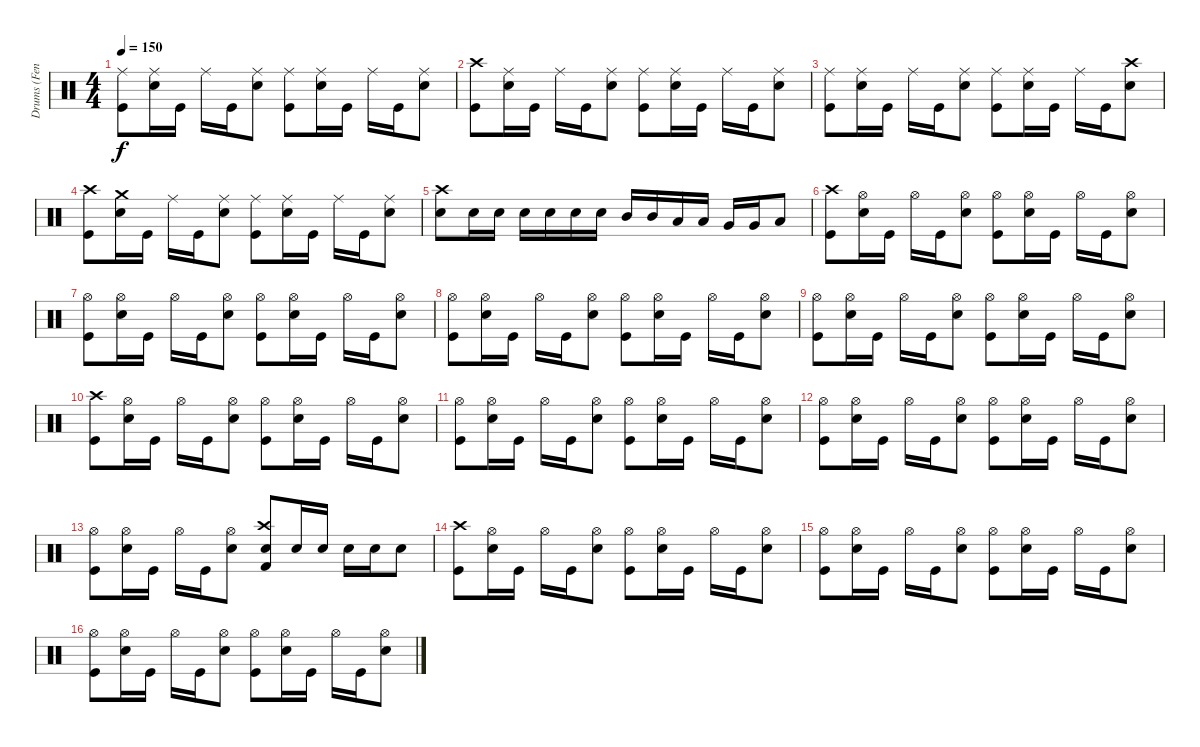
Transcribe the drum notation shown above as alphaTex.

\track ("Drums (Fenriz)" "Drums (Fen") {instrument percussion}
\staff {score}
\articulation defaults
\ts (4 4)
\tempo 150
\clef neutral
\ks c
("Ride (middle)" "Kick (hit)").8{dy f} ("Ride (middle)" "Electric Snare (hit)").16 "Kick (hit)".16 "Ride (middle)".16 "Kick (hit)".16 ("Ride (middle)" "Electric Snare (hit)").8 ("Ride (middle)" "Kick (hit)").8 ("Ride (middle)" "Electric Snare (hit)").16 "Kick (hit)".16 "Ride (middle)".16 "Kick (hit)".16 ("Ride (middle)" "Electric Snare (hit)").8 |
("Crash high (hit)" "Kick (hit)").8 ("Ride (middle)" "Electric Snare (hit)").16 "Kick (hit)".16 "Ride (middle)".16 "Kick (hit)".16 ("Ride (middle)" "Electric Snare (hit)").8 ("Ride (middle)" "Kick (hit)").8 ("Ride (middle)" "Electric Snare (hit)").16 "Kick (hit)".16 "Ride (middle)".16 "Kick (hit)".16 ("Ride (middle)" "Electric Snare (hit)").8 |
("Ride (middle)" "Kick (hit)").8 ("Ride (middle)" "Electric Snare (hit)").16 "Kick (hit)".16 "Ride (middle)".16 "Kick (hit)".16 ("Ride (middle)" "Electric Snare (hit)").8 ("Ride (middle)" "Kick (hit)").8 ("Ride (middle)" "Electric Snare (hit)").16 "Kick (hit)".16 "Ride (middle)".16 "Kick (hit)".16 ("Crash high (hit)" "Electric Snare (hit)").8 |
("Crash high (hit)" "Kick (hit)").8 ("Crash medium (hit)" "Electric Snare (hit)").16 "Kick (hit)".16 "Ride (middle)".16 "Kick (hit)".16 ("Ride (middle)" "Electric Snare (hit)").8 ("Ride (middle)" "Kick (hit)").8 ("Ride (middle)" "Electric Snare (hit)").16 "Kick (hit)".16 "Ride (middle)".16 "Kick (hit)".16 ("Ride (middle)" "Electric Snare (hit)").8 |
("Crash high (hit)" "Electric Snare (hit)").8 "Electric Snare (hit)".16 "Electric Snare (hit)".16 "Electric Snare (hit)".16 "Electric Snare (hit)".16 "Electric Snare (hit)".16 "Electric Snare (hit)".16 "Mid Tom (hit)".16 "Mid Tom (hit)".16 "Low Tom (hit)".16 "Low Tom (hit)".16 "Very Low Tom (hit)".16 "Very Low Tom (hit)".16 "Low Floor Tom (hit)".8 |
("Crash high (hit)" "Kick (hit)").8 ("Hi-Hat (open)" "Electric Snare (hit)").16 "Kick (hit)".16 "Hi-Hat (open)".16 "Kick (hit)".16 ("Hi-Hat (open)" "Electric Snare (hit)").8 ("Hi-Hat (open)" "Kick (hit)").8 ("Hi-Hat (open)" "Electric Snare (hit)").16 "Kick (hit)".16 "Hi-Hat (open)".16 "Kick (hit)".16 ("Hi-Hat (open)" "Electric Snare (hit)").8 |
("Hi-Hat (open)" "Kick (hit)").8 ("Hi-Hat (open)" "Electric Snare (hit)").16 "Kick (hit)".16 "Hi-Hat (open)".16 "Kick (hit)".16 ("Hi-Hat (open)" "Electric Snare (hit)").8 ("Hi-Hat (open)" "Kick (hit)").8 ("Hi-Hat (open)" "Electric Snare (hit)").16 "Kick (hit)".16 "Hi-Hat (open)".16 "Kick (hit)".16 ("Hi-Hat (open)" "Electric Snare (hit)").8 |
("Hi-Hat (open)" "Kick (hit)").8 ("Hi-Hat (open)" "Electric Snare (hit)").16 "Kick (hit)".16 "Hi-Hat (open)".16 "Kick (hit)".16 ("Hi-Hat (open)" "Electric Snare (hit)").8 ("Hi-Hat (open)" "Kick (hit)").8 ("Hi-Hat (open)" "Electric Snare (hit)").16 "Kick (hit)".16 "Hi-Hat (open)".16 "Kick (hit)".16 ("Hi-Hat (open)" "Electric Snare (hit)").8 |
("Hi-Hat (open)" "Kick (hit)").8 ("Hi-Hat (open)" "Electric Snare (hit)").16 "Kick (hit)".16 "Hi-Hat (open)".16 "Kick (hit)".16 ("Hi-Hat (open)" "Electric Snare (hit)").8 ("Hi-Hat (open)" "Kick (hit)").8 ("Hi-Hat (open)" "Electric Snare (hit)").16 "Kick (hit)".16 "Hi-Hat (open)".16 "Kick (hit)".16 ("Hi-Hat (open)" "Electric Snare (hit)").8 |
("Crash high (hit)" "Kick (hit)").8 ("Hi-Hat (open)" "Electric Snare (hit)").16 "Kick (hit)".16 "Hi-Hat (open)".16 "Kick (hit)".16 ("Hi-Hat (open)" "Electric Snare (hit)").8 ("Hi-Hat (open)" "Kick (hit)").8 ("Hi-Hat (open)" "Electric Snare (hit)").16 "Kick (hit)".16 "Hi-Hat (open)".16 "Kick (hit)".16 ("Hi-Hat (open)" "Electric Snare (hit)").8 |
("Hi-Hat (open)" "Kick (hit)").8 ("Hi-Hat (open)" "Electric Snare (hit)").16 "Kick (hit)".16 "Hi-Hat (open)".16 "Kick (hit)".16 ("Hi-Hat (open)" "Electric Snare (hit)").8 ("Hi-Hat (open)" "Kick (hit)").8 ("Hi-Hat (open)" "Electric Snare (hit)").16 "Kick (hit)".16 "Hi-Hat (open)".16 "Kick (hit)".16 ("Hi-Hat (open)" "Electric Snare (hit)").8 |
("Hi-Hat (open)" "Kick (hit)").8 ("Hi-Hat (open)" "Electric Snare (hit)").16 "Kick (hit)".16 "Hi-Hat (open)".16 "Kick (hit)".16 ("Hi-Hat (open)" "Electric Snare (hit)").8 ("Hi-Hat (open)" "Kick (hit)").8 ("Hi-Hat (open)" "Electric Snare (hit)").16 "Kick (hit)".16 "Hi-Hat (open)".16 "Kick (hit)".16 ("Hi-Hat (open)" "Electric Snare (hit)").8 |
("Hi-Hat (open)" "Kick (hit)").8 ("Hi-Hat (open)" "Electric Snare (hit)").16 "Kick (hit)".16 "Hi-Hat (open)".16 "Kick (hit)".16 ("Hi-Hat (open)" "Electric Snare (hit)").8 ("Crash high (hit)" "Electric Snare (hit)" "Kick (hit) 2").8 "Electric Snare (hit)".16 "Electric Snare (hit)".16 "Electric Snare (hit)".16 "Electric Snare (hit)".16 "Electric Snare (hit)".8 |
("Crash high (hit)" "Kick (hit)").8 ("Hi-Hat (open)" "Electric Snare (hit)").16 "Kick (hit)".16 "Hi-Hat (open)".16 "Kick (hit)".16 ("Hi-Hat (open)" "Electric Snare (hit)").8 ("Hi-Hat (open)" "Kick (hit)").8 ("Hi-Hat (open)" "Electric Snare (hit)").16 "Kick (hit)".16 "Hi-Hat (open)".16 "Kick (hit)".16 ("Hi-Hat (open)" "Electric Snare (hit)").8 |
("Hi-Hat (open)" "Kick (hit)").8 ("Hi-Hat (open)" "Electric Snare (hit)").16 "Kick (hit)".16 "Hi-Hat (open)".16 "Kick (hit)".16 ("Hi-Hat (open)" "Electric Snare (hit)").8 ("Hi-Hat (open)" "Kick (hit)").8 ("Hi-Hat (open)" "Electric Snare (hit)").16 "Kick (hit)".16 "Hi-Hat (open)".16 "Kick (hit)".16 ("Hi-Hat (open)" "Electric Snare (hit)").8 |
("Hi-Hat (open)" "Kick (hit)").8 ("Hi-Hat (open)" "Electric Snare (hit)").16 "Kick (hit)".16 "Hi-Hat (open)".16 "Kick (hit)".16 ("Hi-Hat (open)" "Electric Snare (hit)").8 ("Hi-Hat (open)" "Kick (hit)").8 ("Hi-Hat (open)" "Electric Snare (hit)").16 "Kick (hit)".16 "Hi-Hat (open)".16 "Kick (hit)".16 ("Hi-Hat (open)" "Electric Snare (hit)").8
